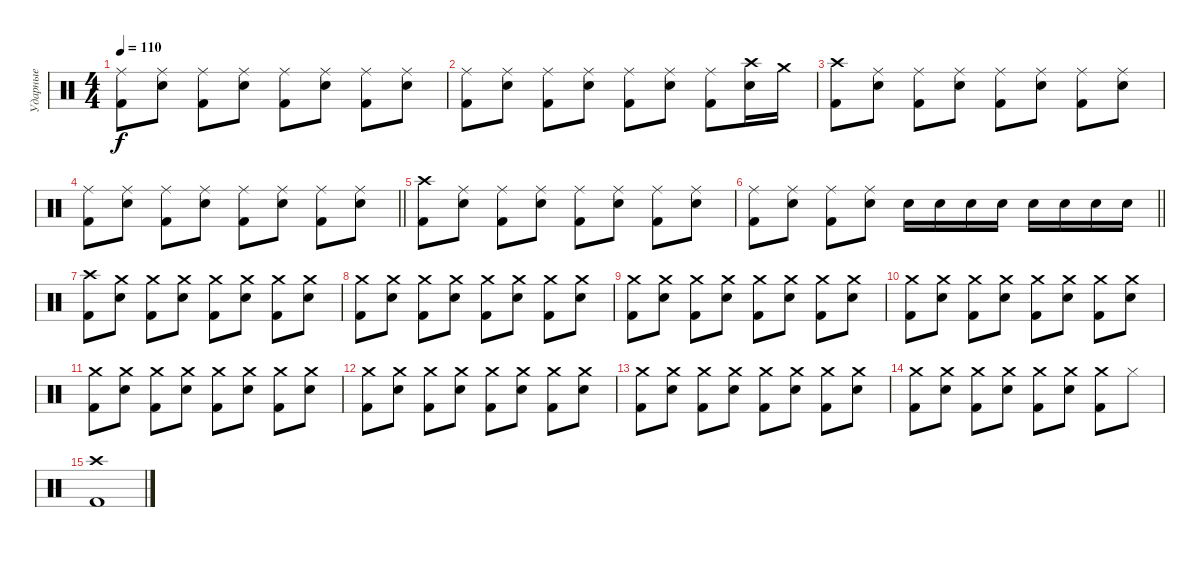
\track ("Ударные" "Ударные") {instrument percussion}
\staff {score}
\articulation defaults
\ts (4 4)
\tempo 110
\clef neutral
\ks c
("Ride (middle)" "Kick (hit) 2").8{dy f} ("Ride (middle)" "Electric Snare (hit)").8 ("Ride (middle)" "Kick (hit) 2").8 ("Ride (middle)" "Electric Snare (hit)").8 ("Ride (middle)" "Kick (hit) 2").8 ("Ride (middle)" "Electric Snare (hit)").8 ("Ride (middle)" "Kick (hit) 2").8 ("Ride (middle)" "Electric Snare (hit)").8 |
("Ride (middle)" "Kick (hit) 2").8 ("Ride (middle)" "Electric Snare (hit)").8 ("Ride (middle)" "Kick (hit) 2").8 ("Ride (middle)" "Electric Snare (hit)").8 ("Ride (middle)" "Kick (hit) 2").8 ("Ride (middle)" "Electric Snare (hit)").8 ("Ride (middle)" "Kick (hit) 2").8 ("Crash high (hit)" "Electric Snare (hit)").16 "Crash medium (hit)".16 |
("Crash high (hit)" "Kick (hit) 2").8 ("Ride (middle)" "Electric Snare (hit)").8 ("Ride (middle)" "Kick (hit) 2").8 ("Ride (middle)" "Electric Snare (hit)").8 ("Ride (middle)" "Kick (hit) 2").8 ("Ride (middle)" "Electric Snare (hit)").8 ("Ride (middle)" "Kick (hit) 2").8 ("Ride (middle)" "Electric Snare (hit)").8 |
\barLineRight lightlight
("Ride (middle)" "Kick (hit) 2").8 ("Ride (middle)" "Electric Snare (hit)").8 ("Ride (middle)" "Kick (hit) 2").8 ("Ride (middle)" "Electric Snare (hit)").8 ("Ride (middle)" "Kick (hit) 2").8 ("Ride (middle)" "Electric Snare (hit)").8 ("Ride (middle)" "Kick (hit) 2").8 ("Ride (middle)" "Electric Snare (hit)").8 |
("Crash high (hit)" "Kick (hit) 2").8 ("Ride (middle)" "Electric Snare (hit)").8 ("Ride (middle)" "Kick (hit) 2").8 ("Ride (middle)" "Electric Snare (hit)").8 ("Ride (middle)" "Kick (hit) 2").8 ("Ride (middle)" "Electric Snare (hit)").8 ("Ride (middle)" "Kick (hit) 2").8 ("Ride (middle)" "Electric Snare (hit)").8 |
\barLineRight lightlight
("Ride (middle)" "Kick (hit) 2").8 ("Ride (middle)" "Electric Snare (hit)").8 ("Ride (middle)" "Kick (hit) 2").8 ("Ride (middle)" "Electric Snare (hit)").8 "Electric Snare (hit)".16 "Electric Snare (hit)".16 "Electric Snare (hit)".16 "Electric Snare (hit)".16 "Electric Snare (hit)".16 "Electric Snare (hit)".16 "Electric Snare (hit)".16 "Electric Snare (hit)".16 |
("Crash high (hit)" "Kick (hit) 2").8 ("Crash medium (hit)" "Electric Snare (hit)").8 ("Crash medium (hit)" "Kick (hit) 2").8 ("Crash medium (hit)" "Electric Snare (hit)").8 ("Crash medium (hit)" "Kick (hit) 2").8 ("Crash medium (hit)" "Electric Snare (hit)").8 ("Crash medium (hit)" "Kick (hit) 2").8 ("Crash medium (hit)" "Electric Snare (hit)").8 |
("Crash medium (hit)" "Kick (hit) 2").8 ("Crash medium (hit)" "Electric Snare (hit)").8 ("Crash medium (hit)" "Kick (hit) 2").8 ("Crash medium (hit)" "Electric Snare (hit)").8 ("Crash medium (hit)" "Kick (hit) 2").8 ("Crash medium (hit)" "Electric Snare (hit)").8 ("Crash medium (hit)" "Kick (hit) 2").8 ("Crash medium (hit)" "Electric Snare (hit)").8 |
("Crash medium (hit)" "Kick (hit) 2").8 ("Crash medium (hit)" "Electric Snare (hit)").8 ("Crash medium (hit)" "Kick (hit) 2").8 ("Crash medium (hit)" "Electric Snare (hit)").8 ("Crash medium (hit)" "Kick (hit) 2").8 ("Crash medium (hit)" "Electric Snare (hit)").8 ("Crash medium (hit)" "Kick (hit) 2").8 ("Crash medium (hit)" "Electric Snare (hit)").8 |
("Crash medium (hit)" "Kick (hit) 2").8 ("Crash medium (hit)" "Electric Snare (hit)").8 ("Crash medium (hit)" "Kick (hit) 2").8 ("Crash medium (hit)" "Electric Snare (hit)").8 ("Crash medium (hit)" "Kick (hit) 2").8 ("Crash medium (hit)" "Electric Snare (hit)").8 ("Crash medium (hit)" "Kick (hit) 2").8 ("Crash medium (hit)" "Electric Snare (hit)").8 |
("Crash medium (hit)" "Kick (hit) 2").8 ("Crash medium (hit)" "Electric Snare (hit)").8 ("Crash medium (hit)" "Kick (hit) 2").8 ("Crash medium (hit)" "Electric Snare (hit)").8 ("Crash medium (hit)" "Kick (hit) 2").8 ("Crash medium (hit)" "Electric Snare (hit)").8 ("Crash medium (hit)" "Kick (hit) 2").8 ("Crash medium (hit)" "Electric Snare (hit)").8 |
("Crash medium (hit)" "Kick (hit) 2").8 ("Crash medium (hit)" "Electric Snare (hit)").8 ("Crash medium (hit)" "Kick (hit) 2").8 ("Crash medium (hit)" "Electric Snare (hit)").8 ("Crash medium (hit)" "Kick (hit) 2").8 ("Crash medium (hit)" "Electric Snare (hit)").8 ("Crash medium (hit)" "Kick (hit) 2").8 ("Crash medium (hit)" "Electric Snare (hit)").8 |
("Crash medium (hit)" "Kick (hit) 2").8 ("Crash medium (hit)" "Electric Snare (hit)").8 ("Crash medium (hit)" "Kick (hit) 2").8 ("Crash medium (hit)" "Electric Snare (hit)").8 ("Crash medium (hit)" "Kick (hit) 2").8 ("Crash medium (hit)" "Electric Snare (hit)").8 ("Crash medium (hit)" "Kick (hit) 2").8 ("Crash medium (hit)" "Electric Snare (hit)").8 |
("Crash medium (hit)" "Kick (hit) 2").8 ("Crash medium (hit)" "Electric Snare (hit)").8 ("Crash medium (hit)" "Kick (hit) 2").8 ("Crash medium (hit)" "Electric Snare (hit)").8 ("Crash medium (hit)" "Kick (hit) 2").8 ("Crash medium (hit)" "Electric Snare (hit)").8 ("Crash medium (hit)" "Kick (hit) 2").8 "Hi-Hat (closed)".8 |
("Crash high (hit)" "Kick (hit) 2").1
